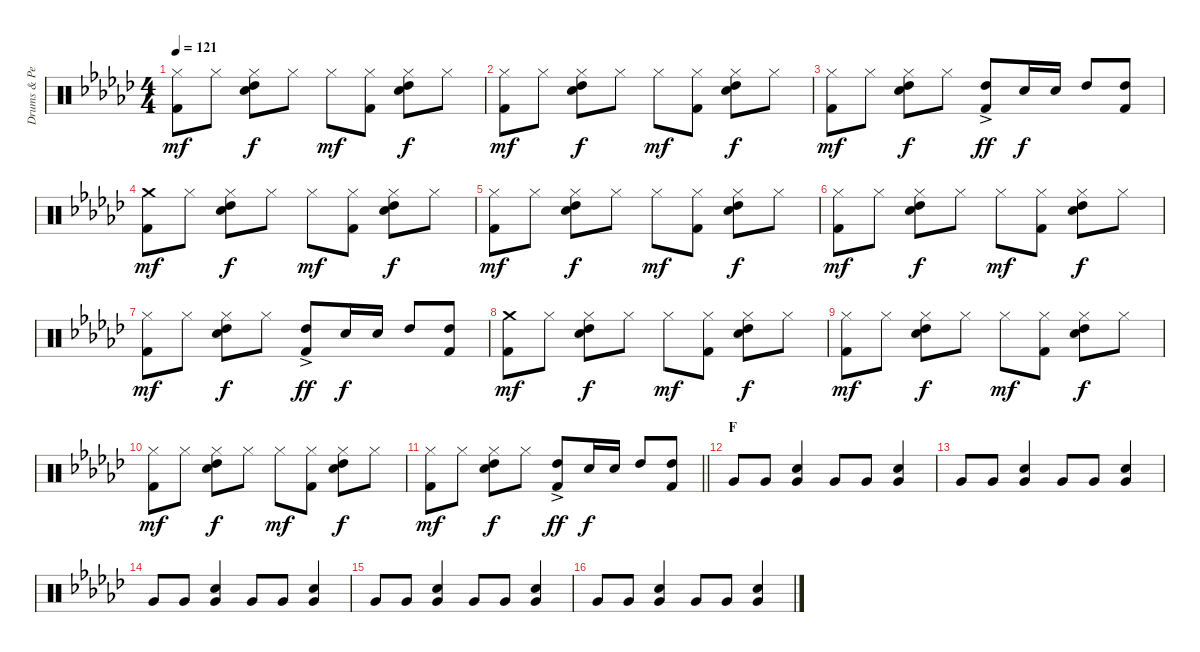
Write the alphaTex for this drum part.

\track ("Drums & Percussion" "Drums & Pe") {instrument percussion bank 98}
\staff {score}
\articulation defaults
\ts (4 4)
\tempo 121
\clef neutral
\ks ebminor
("Hi-Hat (closed)" "Kick (hit) 2").8{dy mf} "Hi-Hat (closed)".8 ("Hi-Hat (closed)" "High Tom (hit)" "Snare (hit) 2").8{dy f} "Hi-Hat (closed)".8 "Hi-Hat (closed)".8{dy mf} ("Hi-Hat (closed)" "Kick (hit) 2").8 ("Hi-Hat (closed)" "High Tom (hit)" "Snare (hit) 2").8{dy f} "Hi-Hat (closed)".8 |
("Hi-Hat (closed)" "Kick (hit) 2").8{dy mf} "Hi-Hat (closed)".8 ("Hi-Hat (closed)" "High Tom (hit)" "Snare (hit) 2").8{dy f} "Hi-Hat (closed)".8 "Hi-Hat (closed)".8{dy mf} ("Hi-Hat (closed)" "Kick (hit) 2").8 ("Hi-Hat (closed)" "High Tom (hit)" "Snare (hit) 2").8{dy f} "Hi-Hat (closed)".8 |
("Hi-Hat (closed)" "Kick (hit) 2").8{dy mf} "Hi-Hat (closed)".8 ("Hi-Hat (closed)" "High Tom (hit)" "Snare (hit) 2").8{dy f} "Hi-Hat (closed)".8 ("High Tom (hit)"{ac} "Kick (hit) 2").8{dy ff} "Snare (hit) 2".16{dy f} "Snare (hit) 2".16 "High Tom (hit)".8 ("High Tom (hit)" "Kick (hit) 2").8 |
("Crash medium (hit)" "Kick (hit) 2").8{dy mf} "Hi-Hat (closed)".8 ("Hi-Hat (closed)" "High Tom (hit)" "Snare (hit) 2").8{dy f} "Hi-Hat (closed)".8 "Hi-Hat (closed)".8{dy mf} ("Hi-Hat (closed)" "Kick (hit) 2").8 ("Hi-Hat (closed)" "High Tom (hit)" "Snare (hit) 2").8{dy f} "Hi-Hat (closed)".8 |
("Hi-Hat (closed)" "Kick (hit) 2").8{dy mf} "Hi-Hat (closed)".8 ("Hi-Hat (closed)" "High Tom (hit)" "Snare (hit) 2").8{dy f} "Hi-Hat (closed)".8 "Hi-Hat (closed)".8{dy mf} ("Hi-Hat (closed)" "Kick (hit) 2").8 ("Hi-Hat (closed)" "High Tom (hit)" "Snare (hit) 2").8{dy f} "Hi-Hat (closed)".8 |
("Hi-Hat (closed)" "Kick (hit) 2").8{dy mf} "Hi-Hat (closed)".8 ("Hi-Hat (closed)" "High Tom (hit)" "Snare (hit) 2").8{dy f} "Hi-Hat (closed)".8 "Hi-Hat (closed)".8{dy mf} ("Hi-Hat (closed)" "Kick (hit) 2").8 ("Hi-Hat (closed)" "High Tom (hit)" "Snare (hit) 2").8{dy f} "Hi-Hat (closed)".8 |
("Hi-Hat (closed)" "Kick (hit) 2").8{dy mf} "Hi-Hat (closed)".8 ("Hi-Hat (closed)" "High Tom (hit)" "Snare (hit) 2").8{dy f} "Hi-Hat (closed)".8 ("High Tom (hit)"{ac} "Kick (hit) 2").8{dy ff} "Snare (hit) 2".16{dy f} "Snare (hit) 2".16 "High Tom (hit)".8 ("High Tom (hit)" "Kick (hit) 2").8 |
("Crash medium (hit)" "Kick (hit) 2").8{dy mf} "Hi-Hat (closed)".8 ("Hi-Hat (closed)" "High Tom (hit)" "Snare (hit) 2").8{dy f} "Hi-Hat (closed)".8 "Hi-Hat (closed)".8{dy mf} ("Hi-Hat (closed)" "Kick (hit) 2").8 ("Hi-Hat (closed)" "High Tom (hit)" "Snare (hit) 2").8{dy f} "Hi-Hat (closed)".8 |
("Hi-Hat (closed)" "Kick (hit) 2").8{dy mf} "Hi-Hat (closed)".8 ("Hi-Hat (closed)" "High Tom (hit)" "Snare (hit) 2").8{dy f} "Hi-Hat (closed)".8 "Hi-Hat (closed)".8{dy mf} ("Hi-Hat (closed)" "Kick (hit) 2").8 ("Hi-Hat (closed)" "High Tom (hit)" "Snare (hit) 2").8{dy f} "Hi-Hat (closed)".8 |
("Hi-Hat (closed)" "Kick (hit) 2").8{dy mf} "Hi-Hat (closed)".8 ("Hi-Hat (closed)" "High Tom (hit)" "Snare (hit) 2").8{dy f} "Hi-Hat (closed)".8 "Hi-Hat (closed)".8{dy mf} ("Hi-Hat (closed)" "Kick (hit) 2").8 ("Hi-Hat (closed)" "High Tom (hit)" "Snare (hit) 2").8{dy f} "Hi-Hat (closed)".8 |
\barLineRight lightlight
("Hi-Hat (closed)" "Kick (hit) 2").8{dy mf} "Hi-Hat (closed)".8 ("Hi-Hat (closed)" "High Tom (hit)" "Snare (hit) 2").8{dy f} "Hi-Hat (closed)".8 ("High Tom (hit)"{ac} "Kick (hit) 2").8{dy ff} "Snare (hit) 2".16{dy f} "Snare (hit) 2".16 "High Tom (hit)".8 ("High Tom (hit)" "Kick (hit) 2").8 |
\section ("" "F")
"Very Low Tom (hit)".8 "Very Low Tom (hit)".8 ("Snare (hit) 2" "Very Low Tom (hit)").4 "Very Low Tom (hit)".8 "Very Low Tom (hit)".8 ("Snare (hit) 2" "Very Low Tom (hit)").4 |
"Very Low Tom (hit)".8 "Very Low Tom (hit)".8 ("Snare (hit) 2" "Very Low Tom (hit)").4 "Very Low Tom (hit)".8 "Very Low Tom (hit)".8 ("Snare (hit) 2" "Very Low Tom (hit)").4 |
"Very Low Tom (hit)".8 "Very Low Tom (hit)".8 ("Snare (hit) 2" "Very Low Tom (hit)").4 "Very Low Tom (hit)".8 "Very Low Tom (hit)".8 ("Snare (hit) 2" "Very Low Tom (hit)").4 |
"Very Low Tom (hit)".8 "Very Low Tom (hit)".8 ("Snare (hit) 2" "Very Low Tom (hit)").4 "Very Low Tom (hit)".8 "Very Low Tom (hit)".8 ("Snare (hit) 2" "Very Low Tom (hit)").4 |
"Very Low Tom (hit)".8 "Very Low Tom (hit)".8 ("Snare (hit) 2" "Very Low Tom (hit)").4 "Very Low Tom (hit)".8 "Very Low Tom (hit)".8 ("Snare (hit) 2" "Very Low Tom (hit)").4
